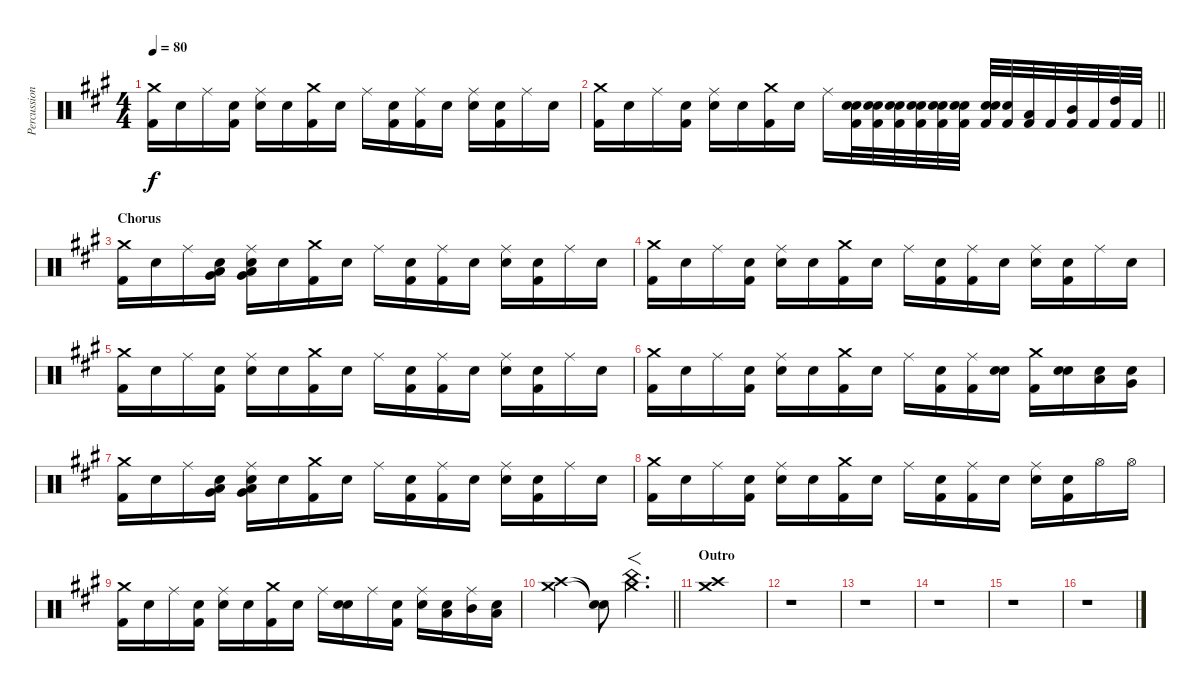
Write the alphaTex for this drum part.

\track ("Percussion" "Percussion") {instrument percussion}
\staff {score}
\articulation defaults
\ts (4 4)
\tempo 80
\clef neutral
\ks a
("Crash medium (hit)" "Kick (hit) 2").16{dy f} "Snare (hit)".16 "Ride (middle)".16 ("Snare (hit)" "Kick (hit) 2").16 ("Ride (middle)" "Snare (hit) 2").16 "Snare (hit)".16 ("Crash medium (hit)" "Kick (hit) 2").16 "Snare (hit)".16 "Ride (middle)".16 ("Snare (hit)" "Kick (hit) 2").16 ("Ride (middle)" "Kick (hit) 2").16 "Snare (hit)".16 ("Ride (middle)" "Snare (hit) 2").16 ("Snare (hit)" "Kick (hit) 2").16 "Ride (middle)".16 "Snare (hit)".16 |
\barLineRight lightlight
("Crash medium (hit)" "Kick (hit) 2").16 "Snare (hit)".16 "Ride (middle)".16 ("Snare (hit)" "Kick (hit) 2").16 ("Ride (middle)" "Snare (hit) 2").16 "Snare (hit)".16 ("Crash medium (hit)" "Kick (hit) 2").16 "Snare (hit)".16 "Ride (middle)".16 ("Snare (hit)" "Electric Snare (hit)" "Kick (hit) 2").32 ("Snare (hit)" "Electric Snare (hit)" "Kick (hit) 2").32 ("Snare (hit)" "Electric Snare (hit)" "Kick (hit) 2").32 ("Snare (hit)" "Electric Snare (hit)" "Kick (hit) 2").32 ("Snare (hit)" "Electric Snare (hit)" "Kick (hit) 2").32 ("Snare (hit)" "Electric Snare (hit)" "Kick (hit) 2").32 ("Snare (hit)" "Electric Snare (hit)" "Kick (hit) 2").32 ("Electric Snare (hit)" "Kick (hit) 2").32 ("Low Tom (hit)" "Kick (hit) 2").32 "Kick (hit) 2".32 ("Mid Tom (hit)" "Kick (hit) 2").32 "Kick (hit) 2".32 ("High Tom (hit)" "Kick (hit) 2").32 "Kick (hit) 2".32 |
\section ("" "Chorus")
("Crash medium (hit)" "Kick (hit) 2").16 "Snare (hit)".16 "Ride (middle)".16 ("Snare (hit)" "Very Low Tom (hit)" "Low Tom (hit)").16 ("Ride (middle)" "Very Low Tom (hit)" "Snare (hit) 2" "Low Tom (hit)").16 "Snare (hit)".16 ("Crash medium (hit)" "Kick (hit) 2").16 "Snare (hit)".16 "Ride (middle)".16 ("Snare (hit)" "Kick (hit) 2").16 ("Ride (middle)" "Kick (hit) 2").16 "Snare (hit)".16 ("Ride (middle)" "Snare (hit) 2").16 ("Snare (hit)" "Kick (hit) 2").16 "Ride (middle)".16 "Snare (hit)".16 |
("Crash medium (hit)" "Kick (hit) 2").16 "Snare (hit)".16 "Ride (middle)".16 ("Snare (hit)" "Kick (hit) 2").16 ("Ride (middle)" "Snare (hit) 2").16 "Snare (hit)".16 ("Crash medium (hit)" "Kick (hit) 2").16 "Snare (hit)".16 "Ride (middle)".16 ("Snare (hit)" "Kick (hit) 2").16 ("Ride (middle)" "Kick (hit) 2").16 "Snare (hit)".16 ("Ride (middle)" "Snare (hit) 2").16 ("Snare (hit)" "Kick (hit) 2").16 "Ride (middle)".16 "Snare (hit)".16 |
("Crash medium (hit)" "Kick (hit) 2").16 "Snare (hit)".16 "Ride (middle)".16 ("Snare (hit)" "Kick (hit) 2").16 ("Ride (middle)" "Snare (hit) 2").16 "Snare (hit)".16 ("Crash medium (hit)" "Kick (hit) 2").16 "Snare (hit)".16 "Ride (middle)".16 ("Snare (hit)" "Kick (hit) 2").16 ("Ride (middle)" "Kick (hit) 2").16 "Snare (hit)".16 ("Ride (middle)" "Snare (hit) 2").16 ("Snare (hit)" "Kick (hit) 2").16 "Ride (middle)".16 "Snare (hit)".16 |
("Crash medium (hit)" "Kick (hit) 2").16 "Snare (hit)".16 "Ride (middle)".16 ("Snare (hit)" "Kick (hit) 2").16 ("Ride (middle)" "Snare (hit) 2").16 "Snare (hit)".16 ("Crash medium (hit)" "Kick (hit) 2").16 "Snare (hit)".16 "Ride (middle)".16 ("Snare (hit)" "Kick (hit) 2").16 ("Ride (middle)" "Kick (hit) 2").16 ("Snare (hit)" "Snare (hit) 2").16 ("Crash medium (hit)" "Kick (hit) 2").16 ("Snare (hit)" "Snare (hit) 2").16 ("Snare (hit)" "Low Tom (hit)").16 ("Snare (hit)" "Very Low Tom (hit)").16 |
("Crash medium (hit)" "Kick (hit) 2").16 "Snare (hit)".16 "Ride (middle)".16 ("Snare (hit)" "Very Low Tom (hit)" "Low Tom (hit)").16 ("Ride (middle)" "Very Low Tom (hit)" "Snare (hit) 2" "Low Tom (hit)").16 "Snare (hit)".16 ("Crash medium (hit)" "Kick (hit) 2").16 "Snare (hit)".16 "Ride (middle)".16 ("Snare (hit)" "Kick (hit) 2").16 ("Ride (middle)" "Kick (hit) 2").16 "Snare (hit)".16 ("Ride (middle)" "Snare (hit) 2").16 ("Snare (hit)" "Kick (hit) 2").16 "Ride (middle)".16 "Snare (hit)".16 |
("Crash medium (hit)" "Kick (hit) 2").16 "Snare (hit)".16 "Ride (middle)".16 ("Snare (hit)" "Kick (hit) 2").16 ("Ride (middle)" "Snare (hit) 2").16 "Snare (hit)".16 ("Crash medium (hit)" "Kick (hit) 2").16 "Snare (hit)".16 "Ride (middle)".16 ("Snare (hit)" "Kick (hit) 2").16 ("Ride (middle)" "Kick (hit) 2").16 "Snare (hit)".16 ("Ride (middle)" "Snare (hit) 2").16 ("Snare (hit)" "Kick (hit) 2").16 "Hi-Hat (open)".16 "Hi-Hat (open)".16 |
("Crash medium (hit)" "Kick (hit) 2").16 "Snare (hit)".16 "Ride (middle)".16 ("Snare (hit)" "Kick (hit) 2").16 ("Ride (middle)" "Snare (hit) 2").16 "Snare (hit)".16 ("Crash medium (hit)" "Kick (hit) 2").16 "Snare (hit)".16 "Ride (middle)".16 ("Snare (hit)" "Snare (hit) 2").16 "Ride (middle)".16 ("Snare (hit)" "Kick (hit) 2").16 ("Ride (middle)" "Snare (hit) 2").16 ("Snare (hit)" "Low Tom (hit)").16 ("Ride (middle)" "Mid Tom (hit)").16 ("Snare (hit)" "Low Tom (hit)").16 |
\barLineRight lightlight
("Crash high (hit)" "Crash medium (hit)").2 ("Snare (hit)"{t} "Snare (hit)"{t}).8 ("Crash medium (hit)" "China (hit)").4{f d} |
\section ("" "Outro")
("Crash medium (hit)" "Crash high (hit)").1{volume 16} |
r.1 |
r.1 |
r.1 |
r.1 |
r.1
